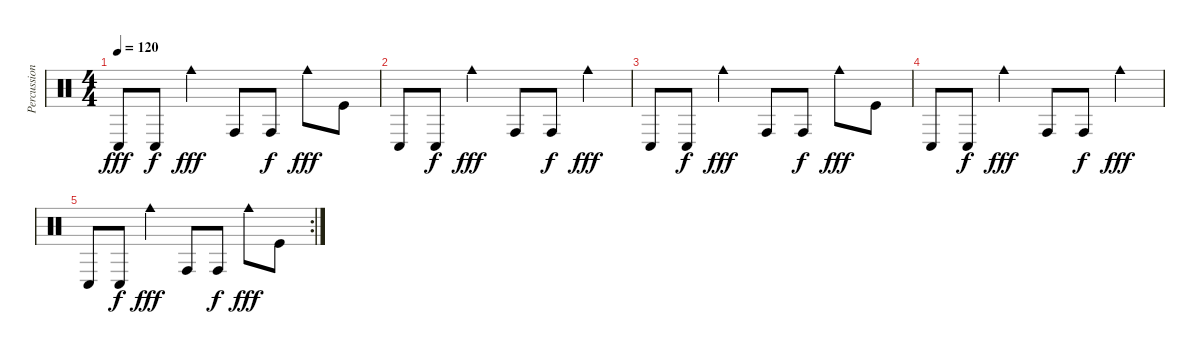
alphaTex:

\track ("Percussions" "Percussion") {instrument percussion}
\staff {score}
\articulation defaults
\ts (4 4)
\tempo 120
\clef neutral
\ks c "Conga low (hit)".8{dy fff} "Conga low (hit)".8{dy f} "Cowbell medium (hit)".4{dy fff} "Conga high (hit)".8 "Conga high (hit)".8{dy f} "Cowbell medium (hit)".8{dy fff} "Kick (hit)".8
|
"Conga low (hit)".8 "Conga low (hit)".8{dy f} "Cowbell medium (hit)".4{dy fff} "Conga high (hit)".8 "Conga high (hit)".8{dy f} "Cowbell medium (hit)".4{dy fff} |
"Conga low (hit)".8 "Conga low (hit)".8{dy f} "Cowbell medium (hit)".4{dy fff} "Conga high (hit)".8 "Conga high (hit)".8{dy f} "Cowbell medium (hit)".8{dy fff} "Kick (hit)".8 |
"Conga low (hit)".8 "Conga low (hit)".8{dy f} "Cowbell medium (hit)".4{dy fff} "Conga high (hit)".8 "Conga high (hit)".8{dy f} "Cowbell medium (hit)".4{dy fff} |
\rc 2 "Conga low (hit)".8 "Conga low (hit)".8{dy f} "Cowbell medium (hit)".4{dy fff} "Conga high (hit)".8 "Conga high (hit)".8{dy f} "Cowbell medium (hit)".8{dy fff} "Kick (hit)".8
